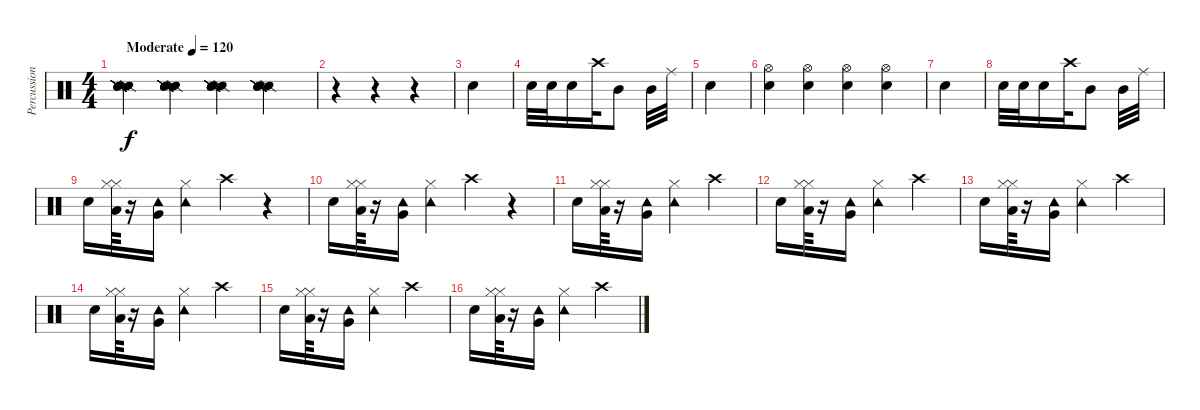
\track ("Percussion" "Percussion") {instrument percussion}
\staff {score}
\articulation defaults
\ts (4 4)
\tempo (120 "Moderate")
\clef neutral
\ks c
("Snare (side stick) 2" "Snare (side stick) 2" "Snare (side stick) 2" "Snare (side stick) 2" "Snare (side stick) 2" "Snare (side stick) 2").4{dy f} ("Snare (side stick) 2" "Snare (side stick) 2" "Snare (side stick) 2" "Snare (side stick) 2" "Snare (side stick) 2" "Snare (side stick) 2").4 ("Snare (side stick) 2" "Snare (side stick) 2" "Snare (side stick) 2" "Snare (side stick) 2" "Snare (side stick) 2" "Snare (side stick) 2").4 ("Snare (side stick) 2" "Snare (side stick) 2" "Snare (side stick) 2" "Snare (side stick) 2" "Snare (side stick) 2" "Snare (side stick) 2").4 |
r.4 r.4 r.4 |
"Snare (hit) 2".4 |
"Snare (hit) 2".32 "Snare (hit) 2".32 "Snare (hit) 2".16 "Crash high (hit)".32 "Mid Tom (hit)".8 "Mid Tom (hit)".32 "Ride (middle)".32 |
"Snare (hit) 2".4 |
("Electric Snare (hit)" "Hi-Hat (open)").4 ("Electric Snare (hit)" "Hi-Hat (open)").4 ("Electric Snare (hit)" "Hi-Hat (open)").4 ("Electric Snare (hit)" "Hi-Hat (open)").4 |
"Snare (hit) 2".4 |
"Snare (hit) 2".32 "Snare (hit) 2".32 "Snare (hit) 2".16 "Crash high (hit)".32 "Mid Tom (hit)".8 "Mid Tom (hit)".32 "Ride (middle)".32 |
"Snare (hit) 2".16 ("Hi-Hat (closed)" "Hi-Hat (closed)" "Low Floor Tom (hit)").64 r.16 ("Very Low Tom (hit)" "Tambourine (hit)").16 ("Tambourine (hit)" "Hi-Hat (closed)").4 "Crash high (hit)".4 r.4 |
"Snare (hit) 2".16 ("Hi-Hat (closed)" "Hi-Hat (closed)" "Low Floor Tom (hit)").64 r.16 ("Very Low Tom (hit)" "Tambourine (hit)").16 ("Tambourine (hit)" "Hi-Hat (closed)").4 "Crash high (hit)".4 r.4 |
"Snare (hit) 2".16 ("Hi-Hat (closed)" "Hi-Hat (closed)" "Low Floor Tom (hit)").64 r.16 ("Very Low Tom (hit)" "Tambourine (hit)").16 ("Tambourine (hit)" "Hi-Hat (closed)").4 "Crash high (hit)".4 |
"Snare (hit) 2".16 ("Hi-Hat (closed)" "Hi-Hat (closed)" "Low Floor Tom (hit)").64 r.16 ("Very Low Tom (hit)" "Tambourine (hit)").16 ("Tambourine (hit)" "Hi-Hat (closed)").4 "Crash high (hit)".4 |
"Snare (hit) 2".16 ("Hi-Hat (closed)" "Hi-Hat (closed)" "Low Floor Tom (hit)").64 r.16 ("Very Low Tom (hit)" "Tambourine (hit)").16 ("Tambourine (hit)" "Hi-Hat (closed)").4 "Crash high (hit)".4 |
"Snare (hit) 2".16 ("Hi-Hat (closed)" "Hi-Hat (closed)" "Low Floor Tom (hit)").64 r.16 ("Very Low Tom (hit)" "Tambourine (hit)").16 ("Tambourine (hit)" "Hi-Hat (closed)").4 "Crash high (hit)".4 |
"Snare (hit) 2".16 ("Hi-Hat (closed)" "Hi-Hat (closed)" "Low Floor Tom (hit)").64 r.16 ("Very Low Tom (hit)" "Tambourine (hit)").16 ("Tambourine (hit)" "Hi-Hat (closed)").4 "Crash high (hit)".4 |
"Snare (hit) 2".16 ("Hi-Hat (closed)" "Hi-Hat (closed)" "Low Floor Tom (hit)").64 r.16 ("Very Low Tom (hit)" "Tambourine (hit)").16 ("Tambourine (hit)" "Hi-Hat (closed)").4 "Crash high (hit)".4
